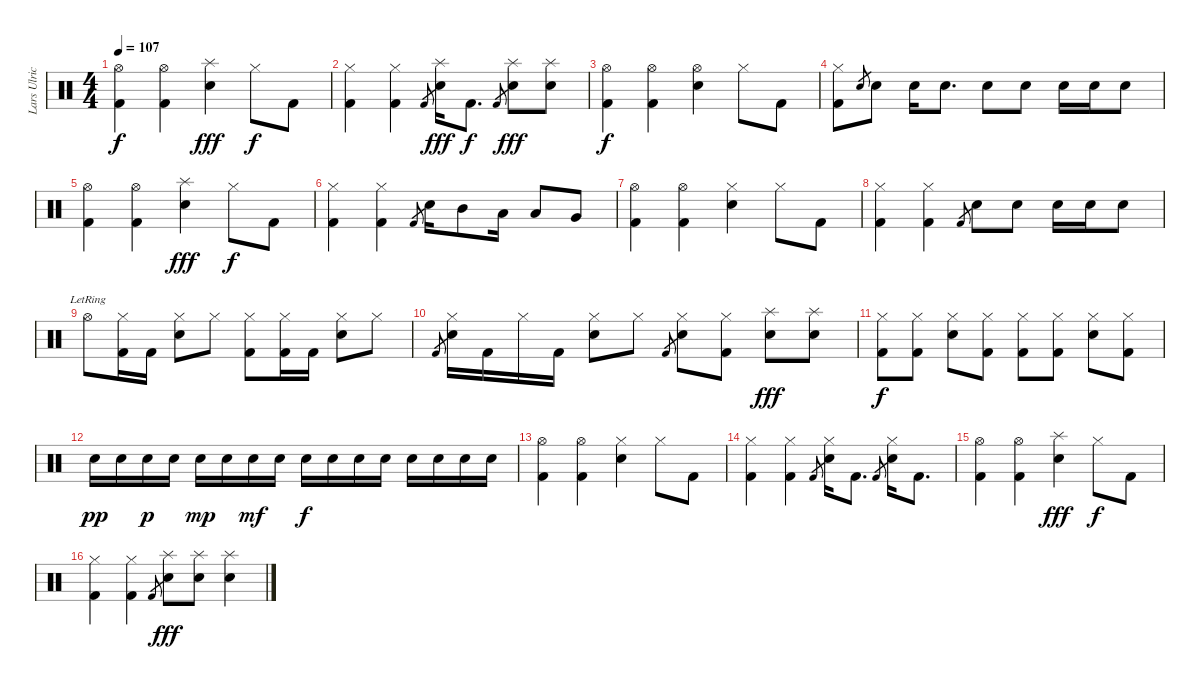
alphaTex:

\track ("Lars Ulrich" "Lars Ulric") {instrument percussion}
\staff {score}
\articulation defaults
\ts (4 4)
\tempo 107
\clef neutral
\ks c
("Hi-Hat (open)" "Kick (hit) 2").4{dy f} ("Hi-Hat (open)" "Kick (hit) 2").4 ("Splash (hit)" "Electric Snare (hit)").4{dy fff} "Hi-Hat (closed)".8{dy f} "Kick (hit) 2".8 |
("Hi-Hat (closed)" "Kick (hit) 2").4 ("Hi-Hat (closed)" "Kick (hit) 2").4 "Kick (hit) 2".8{gr} ("Splash (hit)" "Electric Snare (hit)").16{dy fff} "Kick (hit) 2".8{d dy f} "Kick (hit) 2".8{gr} ("Splash (hit)" "Electric Snare (hit)").8{dy fff} ("Splash (hit)" "Electric Snare (hit)").8 |
("Hi-Hat (open)" "Kick (hit) 2").4{dy f} ("Hi-Hat (open)" "Kick (hit) 2").4 ("Hi-Hat (open)" "Electric Snare (hit)").4 "Hi-Hat (closed)".8 "Kick (hit) 2".8 |
("Hi-Hat (closed)" "Kick (hit) 2").8 "Electric Snare (hit)".8{gr} "Electric Snare (hit)".8 "Electric Snare (hit)".16 "Electric Snare (hit)".8{d} "Electric Snare (hit)".8 "Electric Snare (hit)".8 "Electric Snare (hit)".16 "Electric Snare (hit)".16 "Electric Snare (hit)".8 |
("Hi-Hat (open)" "Kick (hit) 2").4 ("Hi-Hat (open)" "Kick (hit) 2").4 ("Splash (hit)" "Electric Snare (hit)").4{dy fff} "Hi-Hat (closed)".8{dy f} "Kick (hit) 2".8 |
("Hi-Hat (closed)" "Kick (hit) 2").4 ("Hi-Hat (closed)" "Kick (hit) 2").4 "Kick (hit) 2".8{gr} "Electric Snare (hit)".16 "Mid Tom (hit)".8 "Low Tom (hit)".16 "Low Tom (hit)".8 "Very Low Tom (hit)".8 |
("Hi-Hat (open)" "Kick (hit) 2").4 ("Hi-Hat (open)" "Kick (hit) 2").4 ("Hi-Hat (closed)" "Electric Snare (hit)").4 "Hi-Hat (closed)".8 "Kick (hit) 2".8 |
("Hi-Hat (closed)" "Kick (hit) 2").4 ("Hi-Hat (closed)" "Kick (hit) 2").4 "Kick (hit) 2".8{gr} "Electric Snare (hit)".8 "Electric Snare (hit)".8 "Electric Snare (hit)".16 "Electric Snare (hit)".16 "Electric Snare (hit)".8 |
"Hi-Hat (open)"{lr}.8 ("Hi-Hat (closed)" "Kick (hit) 2").16 "Kick (hit) 2".16 ("Hi-Hat (closed)" "Electric Snare (hit)").8 "Hi-Hat (closed)".8 ("Hi-Hat (closed)" "Kick (hit) 2").8 ("Hi-Hat (closed)" "Kick (hit) 2").16 "Kick (hit) 2".16 ("Hi-Hat (closed)" "Electric Snare (hit)").8 "Hi-Hat (closed)".8 |
"Kick (hit) 2".8{gr} ("Hi-Hat (closed)" "Electric Snare (hit)").16 "Kick (hit) 2".16 "Hi-Hat (closed)".16 "Kick (hit) 2".16 ("Hi-Hat (closed)" "Electric Snare (hit)").8 "Hi-Hat (closed)".8 "Kick (hit) 2".8{gr} ("Hi-Hat (closed)" "Electric Snare (hit)").8 ("Hi-Hat (closed)" "Kick (hit) 2").8 ("Splash (hit)" "Electric Snare (hit)").8{dy fff} ("Splash (hit)" "Electric Snare (hit)").8 |
("Hi-Hat (closed)" "Kick (hit) 2").8{dy f} ("Hi-Hat (closed)" "Kick (hit) 2").8 ("Hi-Hat (closed)" "Electric Snare (hit)").8 ("Hi-Hat (closed)" "Kick (hit) 2").8 ("Hi-Hat (closed)" "Kick (hit) 2").8 ("Hi-Hat (closed)" "Kick (hit) 2").8 ("Hi-Hat (closed)" "Electric Snare (hit)").8 ("Hi-Hat (closed)" "Kick (hit) 2").8 |
"Electric Snare (hit)".16{dy pp} "Electric Snare (hit)".16 "Electric Snare (hit)".16{dy p} "Electric Snare (hit)".16 "Electric Snare (hit)".16{dy mp} "Electric Snare (hit)".16 "Electric Snare (hit)".16{dy mf} "Electric Snare (hit)".16 "Electric Snare (hit)".16{dy f} "Electric Snare (hit)".16 "Electric Snare (hit)".16 "Electric Snare (hit)".16 "Electric Snare (hit)".16 "Electric Snare (hit)".16 "Electric Snare (hit)".16 "Electric Snare (hit)".16 |
("Hi-Hat (open)" "Kick (hit) 2").4 ("Hi-Hat (open)" "Kick (hit) 2").4 ("Hi-Hat (closed)" "Electric Snare (hit)").4 "Hi-Hat (closed)".8 "Kick (hit) 2".8 |
("Hi-Hat (closed)" "Kick (hit) 2").4 ("Hi-Hat (closed)" "Kick (hit) 2").4 "Kick (hit) 2".8{gr} ("Hi-Hat (closed)" "Electric Snare (hit)").16 "Kick (hit) 2".8{d} "Kick (hit) 2".8{gr} ("Hi-Hat (closed)" "Electric Snare (hit)").16 "Kick (hit) 2".8{d} |
("Hi-Hat (open)" "Kick (hit) 2").4 ("Hi-Hat (open)" "Kick (hit) 2").4 ("Splash (hit)" "Electric Snare (hit)").4{dy fff} "Hi-Hat (closed)".8{dy f} "Kick (hit) 2".8 |
("Hi-Hat (closed)" "Kick (hit) 2").4 ("Hi-Hat (closed)" "Kick (hit) 2").4 "Kick (hit) 2".8{gr} ("Splash (hit)" "Electric Snare (hit)").8{dy fff} ("Splash (hit)" "Electric Snare (hit)").8 ("Splash (hit)" "Electric Snare (hit)").4
